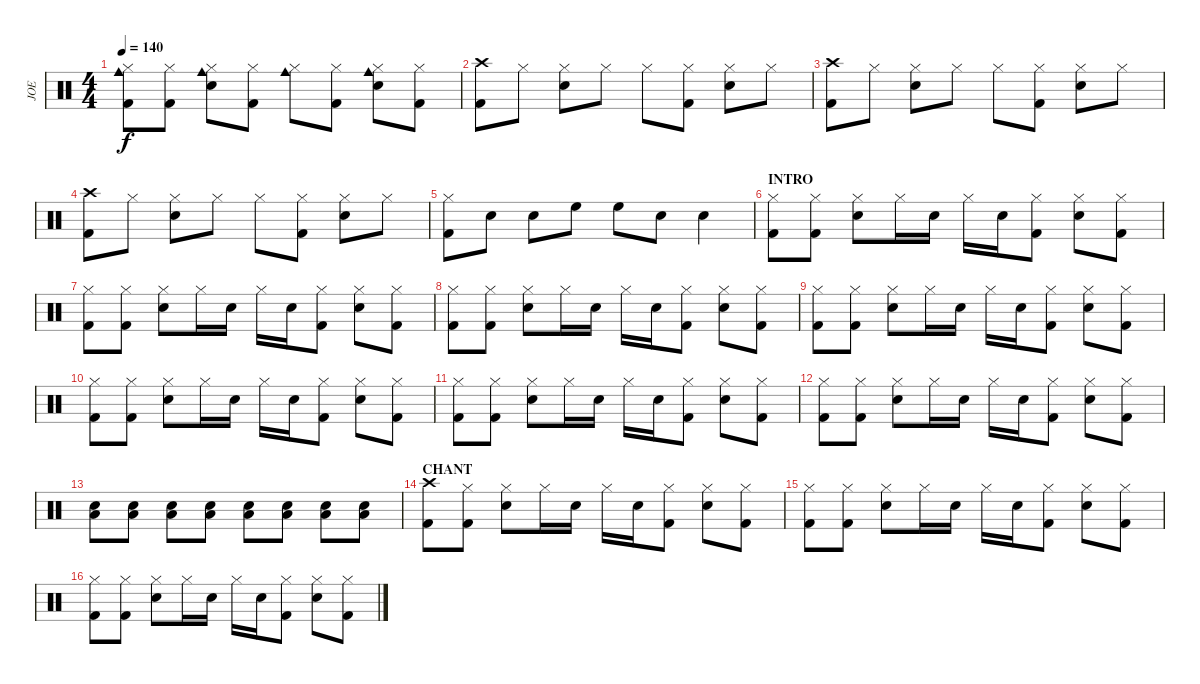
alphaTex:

\track ("JOE" "JOE") {instrument percussion}
\staff {score}
\articulation defaults
\ts (4 4)
\tempo 140
\clef neutral
\ks c
("Cowbell medium (hit)" "Hi-Hat (closed)" "Kick (hit) 2").8{dy f} ("Hi-Hat (closed)" "Kick (hit) 2").8 ("Cowbell medium (hit)" "Hi-Hat (closed)" "Snare (hit) 2").8 ("Hi-Hat (closed)" "Kick (hit) 2").8 ("Cowbell medium (hit)" "Hi-Hat (closed)").8 ("Hi-Hat (closed)" "Kick (hit) 2").8 ("Cowbell medium (hit)" "Hi-Hat (closed)" "Snare (hit) 2").8 ("Hi-Hat (closed)" "Kick (hit) 2").8 |
("Crash high (hit)" "Kick (hit) 2").8 "Hi-Hat (closed)".8 ("Hi-Hat (closed)" "Snare (hit) 2").8 "Hi-Hat (closed)".8 "Hi-Hat (closed)".8 ("Hi-Hat (closed)" "Kick (hit) 2").8 ("Hi-Hat (closed)" "Snare (hit) 2").8 "Hi-Hat (closed)".8 |
("Crash high (hit)" "Kick (hit) 2").8 "Hi-Hat (closed)".8 ("Hi-Hat (closed)" "Snare (hit) 2").8 "Hi-Hat (closed)".8 "Hi-Hat (closed)".8 ("Hi-Hat (closed)" "Kick (hit) 2").8 ("Hi-Hat (closed)" "Snare (hit) 2").8 "Hi-Hat (closed)".8 |
("Crash high (hit)" "Kick (hit) 2").8 "Hi-Hat (closed)".8 ("Hi-Hat (closed)" "Snare (hit) 2").8 "Hi-Hat (closed)".8 "Hi-Hat (closed)".8 ("Hi-Hat (closed)" "Kick (hit) 2").8 ("Hi-Hat (closed)" "Snare (hit) 2").8 "Hi-Hat (closed)".8 |
("Hi-Hat (closed)" "Kick (hit) 2").8 "Snare (hit) 2".8 "Snare (hit) 2".8 "High Floor Tom (hit)".8 "High Floor Tom (hit)".8 "Snare (hit) 2".8 "Snare (hit) 2".4 |
\section ("" "INTRO")
("Hi-Hat (closed)" "Kick (hit) 2").8 ("Hi-Hat (closed)" "Kick (hit) 2").8 ("Hi-Hat (closed)" "Snare (hit) 2").8 "Hi-Hat (closed)".16 "Snare (hit) 2".16 "Hi-Hat (closed)".16 "Snare (hit) 2".16 ("Hi-Hat (closed)" "Kick (hit) 2").8 ("Hi-Hat (closed)" "Snare (hit) 2").8 ("Hi-Hat (closed)" "Kick (hit) 2").8 |
("Hi-Hat (closed)" "Kick (hit) 2").8 ("Hi-Hat (closed)" "Kick (hit) 2").8 ("Hi-Hat (closed)" "Snare (hit) 2").8 "Hi-Hat (closed)".16 "Snare (hit) 2".16 "Hi-Hat (closed)".16 "Snare (hit) 2".16 ("Hi-Hat (closed)" "Kick (hit) 2").8 ("Hi-Hat (closed)" "Snare (hit) 2").8 ("Hi-Hat (closed)" "Kick (hit) 2").8 |
("Hi-Hat (closed)" "Kick (hit) 2").8 ("Hi-Hat (closed)" "Kick (hit) 2").8 ("Hi-Hat (closed)" "Snare (hit) 2").8 "Hi-Hat (closed)".16 "Snare (hit) 2".16 "Hi-Hat (closed)".16 "Snare (hit) 2".16 ("Hi-Hat (closed)" "Kick (hit) 2").8 ("Hi-Hat (closed)" "Snare (hit) 2").8 ("Hi-Hat (closed)" "Kick (hit) 2").8 |
("Hi-Hat (closed)" "Kick (hit) 2").8 ("Hi-Hat (closed)" "Kick (hit) 2").8 ("Hi-Hat (closed)" "Snare (hit) 2").8 "Hi-Hat (closed)".16 "Snare (hit) 2".16 "Hi-Hat (closed)".16 "Snare (hit) 2".16 ("Hi-Hat (closed)" "Kick (hit) 2").8 ("Hi-Hat (closed)" "Snare (hit) 2").8 ("Hi-Hat (closed)" "Kick (hit) 2").8 |
("Hi-Hat (closed)" "Kick (hit) 2").8 ("Hi-Hat (closed)" "Kick (hit) 2").8 ("Hi-Hat (closed)" "Snare (hit) 2").8 "Hi-Hat (closed)".16 "Snare (hit) 2".16 "Hi-Hat (closed)".16 "Snare (hit) 2".16 ("Hi-Hat (closed)" "Kick (hit) 2").8 ("Hi-Hat (closed)" "Snare (hit) 2").8 ("Hi-Hat (closed)" "Kick (hit) 2").8 |
("Hi-Hat (closed)" "Kick (hit) 2").8 ("Hi-Hat (closed)" "Kick (hit) 2").8 ("Hi-Hat (closed)" "Snare (hit) 2").8 "Hi-Hat (closed)".16 "Snare (hit) 2".16 "Hi-Hat (closed)".16 "Snare (hit) 2".16 ("Hi-Hat (closed)" "Kick (hit) 2").8 ("Hi-Hat (closed)" "Snare (hit) 2").8 ("Hi-Hat (closed)" "Kick (hit) 2").8 |
("Hi-Hat (closed)" "Kick (hit) 2").8 ("Hi-Hat (closed)" "Kick (hit) 2").8 ("Hi-Hat (closed)" "Snare (hit) 2").8 "Hi-Hat (closed)".16 "Snare (hit) 2".16 "Hi-Hat (closed)".16 "Snare (hit) 2".16 ("Hi-Hat (closed)" "Kick (hit) 2").8 ("Hi-Hat (closed)" "Snare (hit) 2").8 ("Hi-Hat (closed)" "Kick (hit) 2").8 |
("Snare (hit) 2" "Low Floor Tom (hit)").8 ("Snare (hit) 2" "Low Floor Tom (hit)").8 ("Snare (hit) 2" "Low Floor Tom (hit)").8 ("Snare (hit) 2" "Low Floor Tom (hit)").8 ("Snare (hit) 2" "Low Floor Tom (hit)").8 ("Snare (hit) 2" "Low Floor Tom (hit)").8 ("Snare (hit) 2" "Low Floor Tom (hit)").8 ("Snare (hit) 2" "Low Floor Tom (hit)").8 |
\section ("" "CHANT")
("Crash high (hit)" "Kick (hit) 2").8 ("Hi-Hat (closed)" "Kick (hit) 2").8 ("Hi-Hat (closed)" "Snare (hit) 2").8 "Hi-Hat (closed)".16 "Snare (hit) 2".16 "Hi-Hat (closed)".16 "Snare (hit) 2".16 ("Hi-Hat (closed)" "Kick (hit) 2").8 ("Hi-Hat (closed)" "Snare (hit) 2").8 ("Hi-Hat (closed)" "Kick (hit) 2").8 |
("Hi-Hat (closed)" "Kick (hit) 2").8 ("Hi-Hat (closed)" "Kick (hit) 2").8 ("Hi-Hat (closed)" "Snare (hit) 2").8 "Hi-Hat (closed)".16 "Snare (hit) 2".16 "Hi-Hat (closed)".16 "Snare (hit) 2".16 ("Hi-Hat (closed)" "Kick (hit) 2").8 ("Hi-Hat (closed)" "Snare (hit) 2").8 ("Hi-Hat (closed)" "Kick (hit) 2").8 |
("Hi-Hat (closed)" "Kick (hit) 2").8 ("Hi-Hat (closed)" "Kick (hit) 2").8 ("Hi-Hat (closed)" "Snare (hit) 2").8 "Hi-Hat (closed)".16 "Snare (hit) 2".16 "Hi-Hat (closed)".16 "Snare (hit) 2".16 ("Hi-Hat (closed)" "Kick (hit) 2").8 ("Hi-Hat (closed)" "Snare (hit) 2").8 ("Hi-Hat (closed)" "Kick (hit) 2").8
